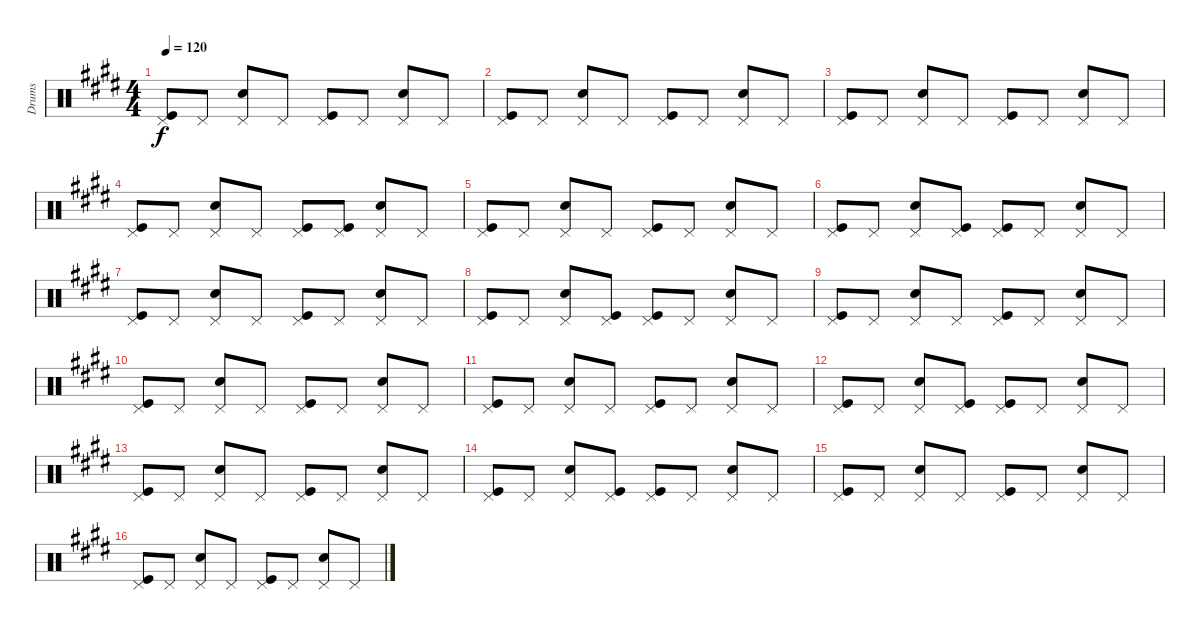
\track ("Drums" "Drums") {instrument percussion}
\staff {score}
\articulation defaults
\ts (4 4)
\tempo 120
\clef neutral
\ks e
("Pedal Hi-Hat (hit)" "Kick (hit)").8{dy f} "Pedal Hi-Hat (hit)".8 ("Pedal Hi-Hat (hit)" "Snare (hit) 2").8 "Pedal Hi-Hat (hit)".8 ("Pedal Hi-Hat (hit)" "Kick (hit)").8 "Pedal Hi-Hat (hit)".8 ("Pedal Hi-Hat (hit)" "Snare (hit) 2").8 "Pedal Hi-Hat (hit)".8 |
("Pedal Hi-Hat (hit)" "Kick (hit)").8 "Pedal Hi-Hat (hit)".8 ("Pedal Hi-Hat (hit)" "Snare (hit) 2").8 "Pedal Hi-Hat (hit)".8 ("Pedal Hi-Hat (hit)" "Kick (hit)").8 "Pedal Hi-Hat (hit)".8 ("Pedal Hi-Hat (hit)" "Snare (hit) 2").8 "Pedal Hi-Hat (hit)".8 |
("Pedal Hi-Hat (hit)" "Kick (hit)").8 "Pedal Hi-Hat (hit)".8 ("Pedal Hi-Hat (hit)" "Snare (hit) 2").8 "Pedal Hi-Hat (hit)".8 ("Pedal Hi-Hat (hit)" "Kick (hit)").8 "Pedal Hi-Hat (hit)".8 ("Pedal Hi-Hat (hit)" "Snare (hit) 2").8 "Pedal Hi-Hat (hit)".8 |
("Pedal Hi-Hat (hit)" "Kick (hit)").8 "Pedal Hi-Hat (hit)".8 ("Pedal Hi-Hat (hit)" "Snare (hit) 2").8 "Pedal Hi-Hat (hit)".8 ("Pedal Hi-Hat (hit)" "Kick (hit)").8 ("Pedal Hi-Hat (hit)" "Kick (hit)").8 ("Pedal Hi-Hat (hit)" "Snare (hit) 2").8 "Pedal Hi-Hat (hit)".8 |
("Pedal Hi-Hat (hit)" "Kick (hit)").8 "Pedal Hi-Hat (hit)".8 ("Pedal Hi-Hat (hit)" "Snare (hit) 2").8 "Pedal Hi-Hat (hit)".8 ("Pedal Hi-Hat (hit)" "Kick (hit)").8 "Pedal Hi-Hat (hit)".8 ("Pedal Hi-Hat (hit)" "Snare (hit) 2").8 "Pedal Hi-Hat (hit)".8 |
("Pedal Hi-Hat (hit)" "Kick (hit)").8 "Pedal Hi-Hat (hit)".8 ("Pedal Hi-Hat (hit)" "Snare (hit) 2").8 ("Pedal Hi-Hat (hit)" "Kick (hit)").8 ("Pedal Hi-Hat (hit)" "Kick (hit)").8 "Pedal Hi-Hat (hit)".8 ("Pedal Hi-Hat (hit)" "Snare (hit) 2").8 "Pedal Hi-Hat (hit)".8 |
("Pedal Hi-Hat (hit)" "Kick (hit)").8 "Pedal Hi-Hat (hit)".8 ("Pedal Hi-Hat (hit)" "Snare (hit) 2").8 "Pedal Hi-Hat (hit)".8 ("Pedal Hi-Hat (hit)" "Kick (hit)").8 "Pedal Hi-Hat (hit)".8 ("Pedal Hi-Hat (hit)" "Snare (hit) 2").8 "Pedal Hi-Hat (hit)".8 |
("Pedal Hi-Hat (hit)" "Kick (hit)").8 "Pedal Hi-Hat (hit)".8 ("Pedal Hi-Hat (hit)" "Snare (hit) 2").8 ("Pedal Hi-Hat (hit)" "Kick (hit)").8 ("Pedal Hi-Hat (hit)" "Kick (hit)").8 "Pedal Hi-Hat (hit)".8 ("Pedal Hi-Hat (hit)" "Snare (hit) 2").8 "Pedal Hi-Hat (hit)".8 |
("Pedal Hi-Hat (hit)" "Kick (hit)").8 "Pedal Hi-Hat (hit)".8 ("Pedal Hi-Hat (hit)" "Snare (hit) 2").8 "Pedal Hi-Hat (hit)".8 ("Pedal Hi-Hat (hit)" "Kick (hit)").8 "Pedal Hi-Hat (hit)".8 ("Pedal Hi-Hat (hit)" "Snare (hit) 2").8 "Pedal Hi-Hat (hit)".8 |
("Pedal Hi-Hat (hit)" "Kick (hit)").8 "Pedal Hi-Hat (hit)".8 ("Pedal Hi-Hat (hit)" "Snare (hit) 2").8 "Pedal Hi-Hat (hit)".8 ("Pedal Hi-Hat (hit)" "Kick (hit)").8 "Pedal Hi-Hat (hit)".8 ("Pedal Hi-Hat (hit)" "Snare (hit) 2").8 "Pedal Hi-Hat (hit)".8 |
("Pedal Hi-Hat (hit)" "Kick (hit)").8 "Pedal Hi-Hat (hit)".8 ("Pedal Hi-Hat (hit)" "Snare (hit) 2").8 "Pedal Hi-Hat (hit)".8 ("Pedal Hi-Hat (hit)" "Kick (hit)").8 "Pedal Hi-Hat (hit)".8 ("Pedal Hi-Hat (hit)" "Snare (hit) 2").8 "Pedal Hi-Hat (hit)".8 |
("Pedal Hi-Hat (hit)" "Kick (hit)").8 "Pedal Hi-Hat (hit)".8 ("Pedal Hi-Hat (hit)" "Snare (hit) 2").8 ("Pedal Hi-Hat (hit)" "Kick (hit)").8 ("Pedal Hi-Hat (hit)" "Kick (hit)").8 "Pedal Hi-Hat (hit)".8 ("Pedal Hi-Hat (hit)" "Snare (hit) 2").8 "Pedal Hi-Hat (hit)".8 |
("Pedal Hi-Hat (hit)" "Kick (hit)").8 "Pedal Hi-Hat (hit)".8 ("Pedal Hi-Hat (hit)" "Snare (hit) 2").8 "Pedal Hi-Hat (hit)".8 ("Pedal Hi-Hat (hit)" "Kick (hit)").8 "Pedal Hi-Hat (hit)".8 ("Pedal Hi-Hat (hit)" "Snare (hit) 2").8 "Pedal Hi-Hat (hit)".8 |
("Pedal Hi-Hat (hit)" "Kick (hit)").8 "Pedal Hi-Hat (hit)".8 ("Pedal Hi-Hat (hit)" "Snare (hit) 2").8 ("Pedal Hi-Hat (hit)" "Kick (hit)").8 ("Pedal Hi-Hat (hit)" "Kick (hit)").8 "Pedal Hi-Hat (hit)".8 ("Pedal Hi-Hat (hit)" "Snare (hit) 2").8 "Pedal Hi-Hat (hit)".8 |
("Pedal Hi-Hat (hit)" "Kick (hit)").8 "Pedal Hi-Hat (hit)".8 ("Pedal Hi-Hat (hit)" "Snare (hit) 2").8 "Pedal Hi-Hat (hit)".8 ("Pedal Hi-Hat (hit)" "Kick (hit)").8 "Pedal Hi-Hat (hit)".8 ("Pedal Hi-Hat (hit)" "Snare (hit) 2").8 "Pedal Hi-Hat (hit)".8 |
("Pedal Hi-Hat (hit)" "Kick (hit)").8 "Pedal Hi-Hat (hit)".8 ("Pedal Hi-Hat (hit)" "Snare (hit) 2").8 "Pedal Hi-Hat (hit)".8 ("Pedal Hi-Hat (hit)" "Kick (hit)").8 "Pedal Hi-Hat (hit)".8 ("Pedal Hi-Hat (hit)" "Snare (hit) 2").8 "Pedal Hi-Hat (hit)".8
